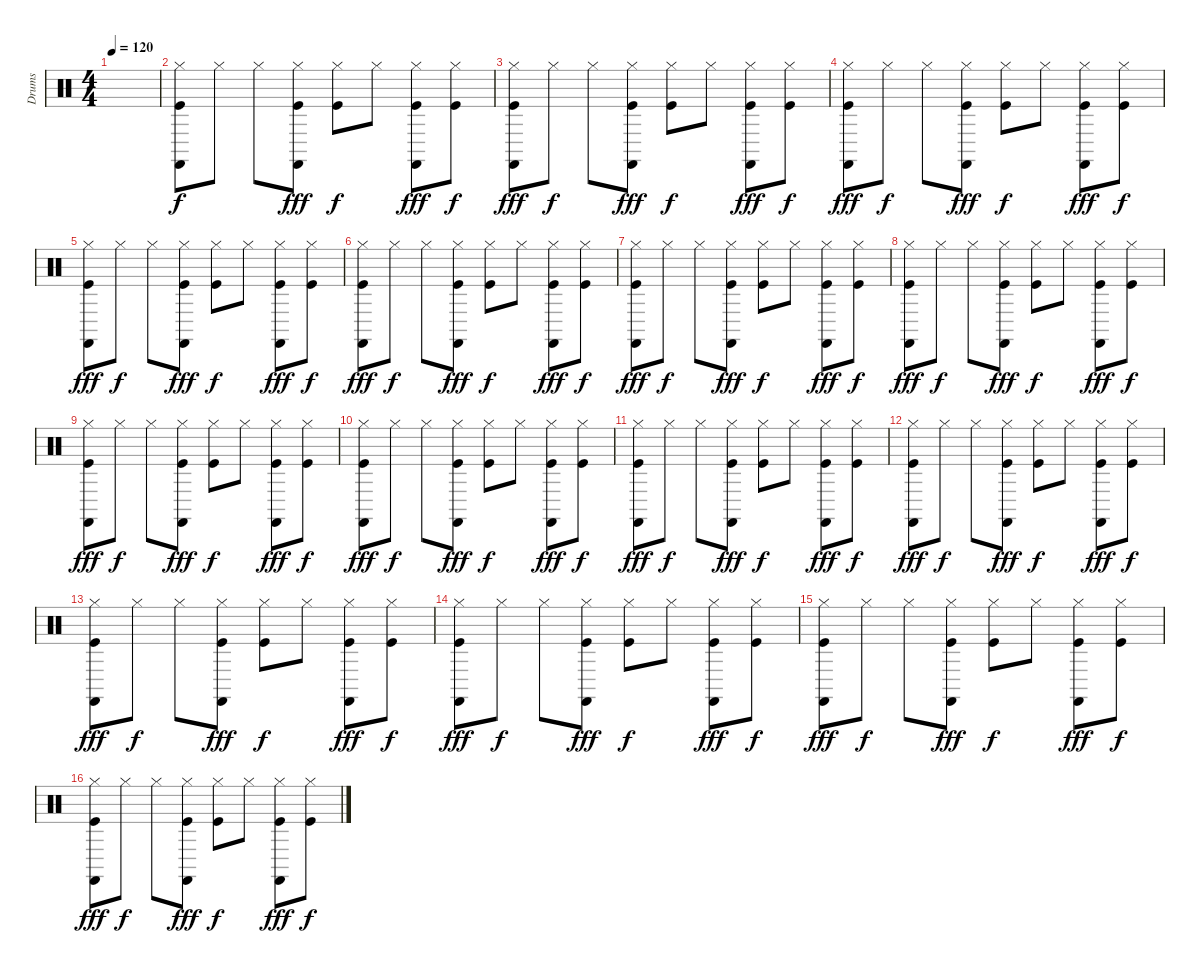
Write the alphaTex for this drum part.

\track ("Drums" "Drums") {instrument percussion}
\staff {score}
\articulation defaults
\ts (4 4)
\tempo 120
\clef neutral
\ks c
|
("Hi-Hat (closed)" "Castanets (hit)" "Kick (hit)").8 "Hi-Hat (closed)".8{dy f} "Hi-Hat (closed)".8 ("Hi-Hat (closed)" "Castanets (hit)" "Kick (hit)").8{dy fff} ("Hi-Hat (closed)" "Kick (hit)").8{dy f} "Hi-Hat (closed)".8 ("Hi-Hat (closed)" "Castanets (hit)" "Kick (hit)").8{dy fff} ("Hi-Hat (closed)" "Kick (hit)").8{dy f} |
("Hi-Hat (closed)" "Castanets (hit)" "Kick (hit)").8{dy fff} "Hi-Hat (closed)".8{dy f} "Hi-Hat (closed)".8 ("Hi-Hat (closed)" "Castanets (hit)" "Kick (hit)").8{dy fff} ("Hi-Hat (closed)" "Kick (hit)").8{dy f} "Hi-Hat (closed)".8 ("Hi-Hat (closed)" "Castanets (hit)" "Kick (hit)").8{dy fff} ("Hi-Hat (closed)" "Kick (hit)").8{dy f} |
("Hi-Hat (closed)" "Castanets (hit)" "Kick (hit)").8{dy fff} "Hi-Hat (closed)".8{dy f} "Hi-Hat (closed)".8 ("Hi-Hat (closed)" "Castanets (hit)" "Kick (hit)").8{dy fff} ("Hi-Hat (closed)" "Kick (hit)").8{dy f} "Hi-Hat (closed)".8 ("Hi-Hat (closed)" "Castanets (hit)" "Kick (hit)").8{dy fff} ("Hi-Hat (closed)" "Kick (hit)").8{dy f} |
("Hi-Hat (closed)" "Castanets (hit)" "Kick (hit)").8{dy fff} "Hi-Hat (closed)".8{dy f} "Hi-Hat (closed)".8 ("Hi-Hat (closed)" "Castanets (hit)" "Kick (hit)").8{dy fff} ("Hi-Hat (closed)" "Kick (hit)").8{dy f} "Hi-Hat (closed)".8 ("Hi-Hat (closed)" "Castanets (hit)" "Kick (hit)").8{dy fff} ("Hi-Hat (closed)" "Kick (hit)").8{dy f} |
("Hi-Hat (closed)" "Castanets (hit)" "Kick (hit)").8{dy fff} "Hi-Hat (closed)".8{dy f} "Hi-Hat (closed)".8 ("Hi-Hat (closed)" "Castanets (hit)" "Kick (hit)").8{dy fff} ("Hi-Hat (closed)" "Kick (hit)").8{dy f} "Hi-Hat (closed)".8 ("Hi-Hat (closed)" "Castanets (hit)" "Kick (hit)").8{dy fff} ("Hi-Hat (closed)" "Kick (hit)").8{dy f} |
("Hi-Hat (closed)" "Castanets (hit)" "Kick (hit)").8{dy fff} "Hi-Hat (closed)".8{dy f} "Hi-Hat (closed)".8 ("Hi-Hat (closed)" "Castanets (hit)" "Kick (hit)").8{dy fff} ("Hi-Hat (closed)" "Kick (hit)").8{dy f} "Hi-Hat (closed)".8 ("Hi-Hat (closed)" "Castanets (hit)" "Kick (hit)").8{dy fff} ("Hi-Hat (closed)" "Kick (hit)").8{dy f} |
("Hi-Hat (closed)" "Castanets (hit)" "Kick (hit)").8{dy fff} "Hi-Hat (closed)".8{dy f} "Hi-Hat (closed)".8 ("Hi-Hat (closed)" "Castanets (hit)" "Kick (hit)").8{dy fff} ("Hi-Hat (closed)" "Kick (hit)").8{dy f} "Hi-Hat (closed)".8 ("Hi-Hat (closed)" "Castanets (hit)" "Kick (hit)").8{dy fff} ("Hi-Hat (closed)" "Kick (hit)").8{dy f} |
("Hi-Hat (closed)" "Castanets (hit)" "Kick (hit)").8{dy fff} "Hi-Hat (closed)".8{dy f} "Hi-Hat (closed)".8 ("Hi-Hat (closed)" "Castanets (hit)" "Kick (hit)").8{dy fff} ("Hi-Hat (closed)" "Kick (hit)").8{dy f} "Hi-Hat (closed)".8 ("Hi-Hat (closed)" "Castanets (hit)" "Kick (hit)").8{dy fff} ("Hi-Hat (closed)" "Kick (hit)").8{dy f} |
("Hi-Hat (closed)" "Castanets (hit)" "Kick (hit)").8{dy fff} "Hi-Hat (closed)".8{dy f} "Hi-Hat (closed)".8 ("Hi-Hat (closed)" "Castanets (hit)" "Kick (hit)").8{dy fff} ("Hi-Hat (closed)" "Kick (hit)").8{dy f} "Hi-Hat (closed)".8 ("Hi-Hat (closed)" "Castanets (hit)" "Kick (hit)").8{dy fff} ("Hi-Hat (closed)" "Kick (hit)").8{dy f} |
("Hi-Hat (closed)" "Castanets (hit)" "Kick (hit)").8{dy fff} "Hi-Hat (closed)".8{dy f} "Hi-Hat (closed)".8 ("Hi-Hat (closed)" "Castanets (hit)" "Kick (hit)").8{dy fff} ("Hi-Hat (closed)" "Kick (hit)").8{dy f} "Hi-Hat (closed)".8 ("Hi-Hat (closed)" "Castanets (hit)" "Kick (hit)").8{dy fff} ("Hi-Hat (closed)" "Kick (hit)").8{dy f} |
("Hi-Hat (closed)" "Castanets (hit)" "Kick (hit)").8{dy fff} "Hi-Hat (closed)".8{dy f} "Hi-Hat (closed)".8 ("Hi-Hat (closed)" "Castanets (hit)" "Kick (hit)").8{dy fff} ("Hi-Hat (closed)" "Kick (hit)").8{dy f} "Hi-Hat (closed)".8 ("Hi-Hat (closed)" "Castanets (hit)" "Kick (hit)").8{dy fff} ("Hi-Hat (closed)" "Kick (hit)").8{dy f} |
("Hi-Hat (closed)" "Castanets (hit)" "Kick (hit)").8{dy fff} "Hi-Hat (closed)".8{dy f} "Hi-Hat (closed)".8 ("Hi-Hat (closed)" "Castanets (hit)" "Kick (hit)").8{dy fff} ("Hi-Hat (closed)" "Kick (hit)").8{dy f} "Hi-Hat (closed)".8 ("Hi-Hat (closed)" "Castanets (hit)" "Kick (hit)").8{dy fff} ("Hi-Hat (closed)" "Kick (hit)").8{dy f} |
("Hi-Hat (closed)" "Castanets (hit)" "Kick (hit)").8{dy fff} "Hi-Hat (closed)".8{dy f} "Hi-Hat (closed)".8 ("Hi-Hat (closed)" "Castanets (hit)" "Kick (hit)").8{dy fff} ("Hi-Hat (closed)" "Kick (hit)").8{dy f} "Hi-Hat (closed)".8 ("Hi-Hat (closed)" "Castanets (hit)" "Kick (hit)").8{dy fff} ("Hi-Hat (closed)" "Kick (hit)").8{dy f} |
("Hi-Hat (closed)" "Castanets (hit)" "Kick (hit)").8{dy fff} "Hi-Hat (closed)".8{dy f} "Hi-Hat (closed)".8 ("Hi-Hat (closed)" "Castanets (hit)" "Kick (hit)").8{dy fff} ("Hi-Hat (closed)" "Kick (hit)").8{dy f} "Hi-Hat (closed)".8 ("Hi-Hat (closed)" "Castanets (hit)" "Kick (hit)").8{dy fff} ("Hi-Hat (closed)" "Kick (hit)").8{dy f} |
("Hi-Hat (closed)" "Castanets (hit)" "Kick (hit)").8{dy fff} "Hi-Hat (closed)".8{dy f} "Hi-Hat (closed)".8 ("Hi-Hat (closed)" "Castanets (hit)" "Kick (hit)").8{dy fff} ("Hi-Hat (closed)" "Kick (hit)").8{dy f} "Hi-Hat (closed)".8 ("Hi-Hat (closed)" "Castanets (hit)" "Kick (hit)").8{dy fff} ("Hi-Hat (closed)" "Kick (hit)").8{dy f}
